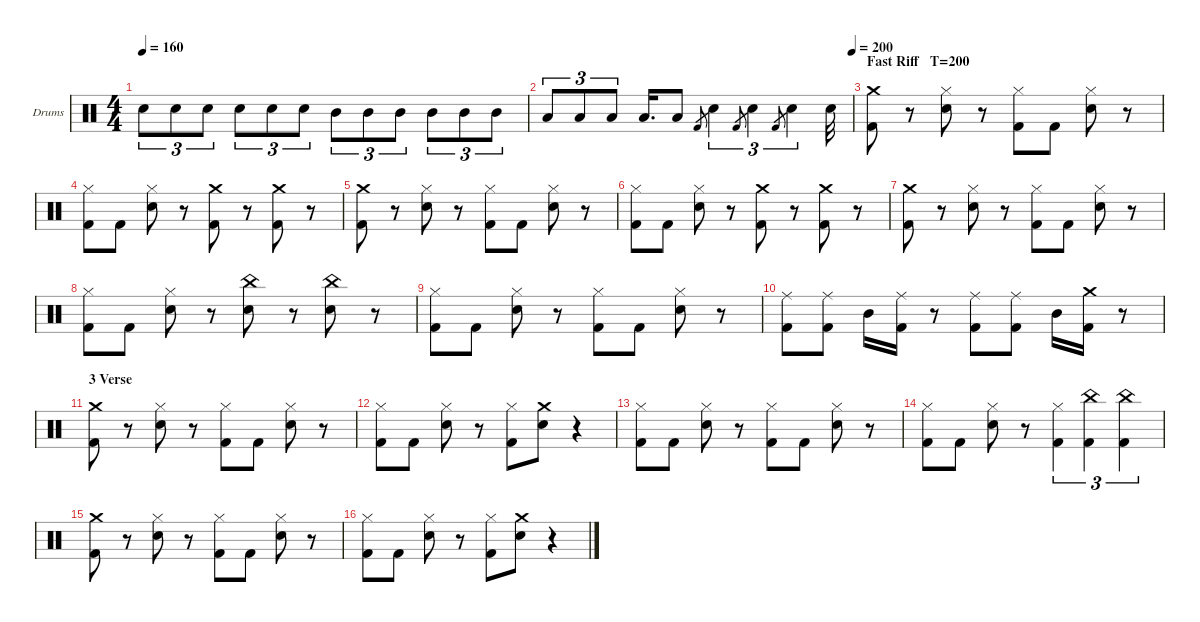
\hideDynamics
\bracketExtendMode nobrackets
\firstSystemTrackNameOrientation horizontal
\otherSystemsTrackNameOrientation horizontal
\track ("Drumkit" "Drums") {instrument percussion}
\staff {score}
\articulation defaults
\ts (4 4)
\tempo 160
\clef neutral
\ks c "Snare (hit) 2".8{tu (3 2) dy f} "Snare (hit) 2".8{tu (3 2)} "Snare (hit) 2".8{tu (3 2)} "Snare (hit) 2".8{tu (3 2)} "Snare (hit) 2".8{tu (3 2)} "Snare (hit) 2".8{tu (3 2)} "Mid Tom (hit)".8{tu (3 2)} "Mid Tom (hit)".8{tu (3 2)} "Mid Tom (hit)".8{tu (3 2)} "Mid Tom (hit)".8{tu (3 2)} "Mid Tom (hit)".8{tu (3 2)} "Mid Tom (hit)".8{tu (3 2)}
|
\tempo (200 1)
"Low Tom (hit)".8{tu (3 2)} "Low Tom (hit)".8{tu (3 2)} "Low Tom (hit)".8{tu (3 2)} "Low Tom (hit)".16{d} "Low Tom (hit)".8 "Kick (hit) 2".8{gr dy mf} "Snare (hit) 2".4{tu (3 2) dy f} "Kick (hit) 2".8{gr dy mf} "Snare (hit) 2".4{tu (3 2) dy f} "Kick (hit) 2".8{gr dy mf} "Snare (hit) 2".4{tu (3 2) dy f} "Snare (hit) 2".32 |
\section ("" "Fast Riff   T=200")
("Kick (hit) 2" "Crash medium (hit)").8 r.8 ("Hi-Hat (closed)" "Snare (hit) 2").8 r.8 ("Kick (hit) 2" "Hi-Hat (closed)").8 "Kick (hit) 2".8 ("Snare (hit) 2" "Hi-Hat (closed)").8 r.8 |
("Kick (hit) 2" "Hi-Hat (closed)").8 "Kick (hit) 2".8 ("Snare (hit) 2" "Hi-Hat (closed)").8 r.8 ("Crash medium (hit)" "Kick (hit) 2").8 r.8 ("Crash medium (hit)" "Kick (hit) 2").8 r.8 |
("Kick (hit) 2" "Crash medium (hit)").8 r.8 ("Hi-Hat (closed)" "Snare (hit) 2").8 r.8 ("Kick (hit) 2" "Hi-Hat (closed)").8 "Kick (hit) 2".8 ("Snare (hit) 2" "Hi-Hat (closed)").8 r.8 |
("Kick (hit) 2" "Hi-Hat (closed)").8 "Kick (hit) 2".8 ("Snare (hit) 2" "Hi-Hat (closed)").8 r.8 ("Crash medium (hit)" "Kick (hit) 2").8 r.8 ("Crash medium (hit)" "Kick (hit) 2").8 r.8 |
("Kick (hit) 2" "Crash medium (hit)").8 r.8 ("Hi-Hat (closed)" "Snare (hit) 2").8 r.8 ("Kick (hit) 2" "Hi-Hat (closed)").8 "Kick (hit) 2".8 ("Snare (hit) 2" "Hi-Hat (closed)").8 r.8 |
("Kick (hit) 2" "Hi-Hat (closed)").8 "Kick (hit) 2".8 ("Snare (hit) 2" "Hi-Hat (closed)").8 r.8 ("China (hit)" "Snare (hit) 2").8 r.8 ("China (hit)" "Snare (hit) 2").8 r.8 |
("Kick (hit) 2" "Hi-Hat (closed)").8 "Kick (hit) 2".8 ("Snare (hit) 2" "Hi-Hat (closed)").8 r.8 ("Kick (hit) 2" "Hi-Hat (closed)").8 "Kick (hit) 2".8 ("Snare (hit) 2" "Hi-Hat (closed)").8 r.8 |
("Ride (middle)" "Kick (hit) 2").8 ("Ride (middle)" "Kick (hit) 2").8 "Mid Tom (hit)".16 ("Ride (middle)" "Kick (hit) 2").16 r.8 ("Ride (middle)" "Kick (hit) 2").8 ("Ride (middle)" "Kick (hit) 2").8 "Mid Tom (hit)".16 ("Crash medium (hit)" "Kick (hit) 2").16 r.8 |
\section ("" "3 Verse")
("Kick (hit) 2" "Crash medium (hit)").8 r.8 ("Hi-Hat (closed)" "Snare (hit) 2").8 r.8 ("Hi-Hat (closed)" "Kick (hit) 2").8 "Kick (hit) 2".8 ("Hi-Hat (closed)" "Snare (hit) 2").8 r.8 |
("Kick (hit) 2" "Hi-Hat (closed)").8 "Kick (hit) 2".8 ("Snare (hit) 2" "Hi-Hat (closed)").8 r.8 ("Hi-Hat (closed)" "Kick (hit) 2").8 ("Crash medium (hit)" "Snare (hit) 2").8 r.4 |
("Kick (hit) 2" "Hi-Hat (closed)").8 "Kick (hit) 2".8 ("Snare (hit) 2" "Hi-Hat (closed)").8 r.8 ("Kick (hit) 2" "Hi-Hat (closed)").8 "Kick (hit) 2".8 ("Snare (hit) 2" "Hi-Hat (closed)").8 r.8 |
("Kick (hit) 2" "Hi-Hat (closed)").8 "Kick (hit) 2".8 ("Snare (hit) 2" "Hi-Hat (closed)").8 r.8 ("Hi-Hat (closed)" "Kick (hit) 2").4{tu (3 2)} ("China (hit)" "Kick (hit) 2").4{tu (3 2)} ("China (hit)" "Kick (hit) 2").4{tu (3 2)} |
("Kick (hit) 2" "Crash medium (hit)").8 r.8 ("Hi-Hat (closed)" "Snare (hit) 2").8 r.8 ("Hi-Hat (closed)" "Kick (hit) 2").8 "Kick (hit) 2".8 ("Hi-Hat (closed)" "Snare (hit) 2").8 r.8 |
("Kick (hit) 2" "Hi-Hat (closed)").8 "Kick (hit) 2".8 ("Snare (hit) 2" "Hi-Hat (closed)").8 r.8 ("Hi-Hat (closed)" "Kick (hit) 2").8 ("Crash medium (hit)" "Snare (hit) 2").8 r.4
